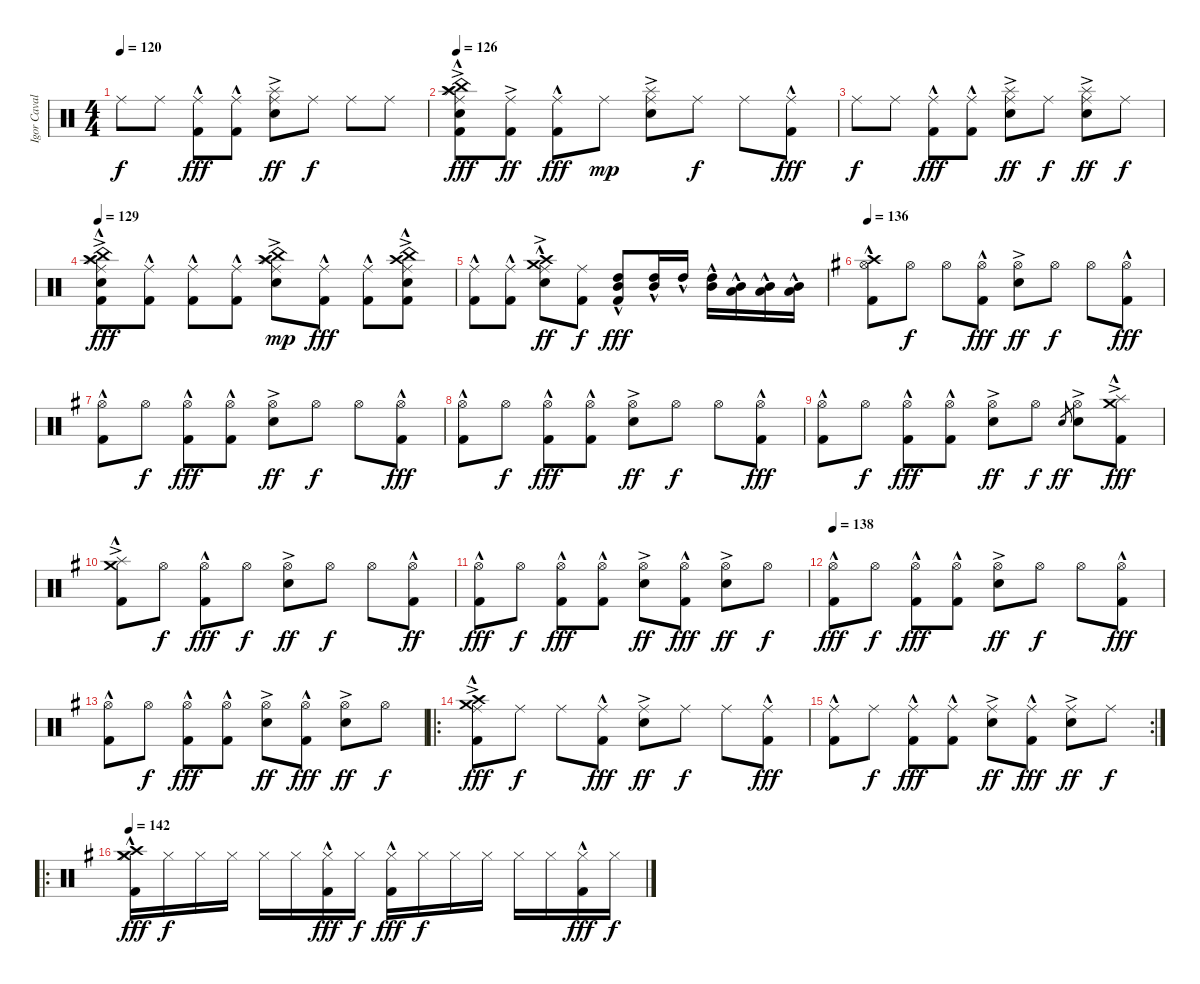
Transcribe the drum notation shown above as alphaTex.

\track ("Igor Cavalera" "Igor Caval") {instrument percussion}
\staff {score}
\articulation defaults
\ts (4 4)
\tempo 120
\clef neutral
\ks c "Ride (middle)".8{dy f} "Ride (middle)".8
("Ride (middle)" "Kick (hit) 2"{hac}).8{dy fff} ("Ride (middle)" "Kick (hit) 2"{hac}).8 ("Splash (hit)" "Snare (hit) 2"{ac} "Ride (middle)").8{dy ff} "Ride (middle)".8{dy f} "Ride (middle)".8 "Ride (middle)".8 |
\tempo 126
("Crash high (hit)"{ac} "China (hit)"{ac} "Snare (hit) 2"{ac} "Splash (hit)" "Ride (middle)" "Kick (hit) 2"{hac}).8{dy fff} ("Ride (middle)" "Kick (hit) 2"{ac}).8{dy ff} ("Ride (middle)" "Kick (hit) 2"{hac}).8{dy fff} "Ride (middle)".8{dy mp} ("Splash (hit)" "Snare (hit) 2"{ac} "Ride (middle)").8 "Ride (middle)".8{dy f} "Ride (middle)".8 ("Ride (middle)" "Kick (hit) 2"{hac}).8{dy fff} |
"Ride (middle)".8{dy f} "Ride (middle)".8 ("Ride (middle)" "Kick (hit) 2"{hac}).8{dy fff} ("Ride (middle)" "Kick (hit) 2"{hac}).8 ("Splash (hit)" "Snare (hit) 2"{ac} "Ride (middle)").8{dy ff} "Ride (middle)".8{dy f} ("Splash (hit)" "Snare (hit) 2"{ac} "Ride (middle)").8{dy ff} "Ride (middle)".8{dy f} |
\tempo 129
("Crash high (hit)"{ac} "China (hit)"{ac} "Snare (hit) 2"{ac} "Ride (middle)" "Splash (hit)" "Kick (hit) 2"{hac}).8{dy fff} ("Ride (middle)" "Kick (hit) 2"{hac}).8 ("Ride (middle)" "Kick (hit) 2"{hac}).8 ("Ride (middle)" "Kick (hit) 2"{hac}).8 ("Crash high (hit)"{ac} "China (hit)"{ac} "Snare (hit) 2"{ac} "Ride (middle)" "Splash (hit)").8{dy mp} ("Ride (middle)" "Kick (hit) 2"{hac}).8{dy fff} ("Ride (middle)" "Kick (hit) 2"{hac}).8 ("Crash high (hit)"{ac} "China (hit)"{ac} "Snare (hit) 2"{ac} "Ride (middle)" "Kick (hit) 2"{hac}).8 |
("Ride (middle)" "Kick (hit) 2"{hac}).8 ("Ride (middle)" "Kick (hit) 2"{hac}).8 ("Crash medium (hit)"{hac} "Crash high (hit)"{ac} "Snare (hit) 2" "Ride (middle)").8{dy ff} ("Ride (middle)" "Kick (hit) 2").8{dy f} ("High Tom (hit)"{hac} "Mid Tom (hit)"{hac} "Kick (hit) 2").8{dy fff} ("High Tom (hit)"{hac} "Mid Tom (hit)"{hac}).16 "High Tom (hit)"{hac}.16 ("High Tom (hit)"{hac} "Mid Tom (hit)"{hac}).16 ("Mid Tom (hit)"{hac} "Low Tom (hit)"{hac}).16 ("Mid Tom (hit)"{hac} "Low Tom (hit)"{hac}).16 ("Mid Tom (hit)"{hac} "Low Tom (hit)"{hac}).16 |
\tempo 136
\ks g
("Crash high (hit)"{hac} "Hi-Hat (open)" "Kick (hit) 2"{hac}).8 "Hi-Hat (open)".8{dy f} "Hi-Hat (open)".8 ("Hi-Hat (open)" "Kick (hit) 2"{hac}).8{dy fff} ("Snare (hit) 2"{ac} "Hi-Hat (open)").8{dy ff} "Hi-Hat (open)".8{dy f} "Hi-Hat (open)".8 ("Hi-Hat (open)" "Kick (hit) 2"{hac}).8{dy fff} |
("Hi-Hat (open)" "Kick (hit) 2"{hac}).8 "Hi-Hat (open)".8{dy f} ("Hi-Hat (open)" "Kick (hit) 2"{hac}).8{dy fff} ("Hi-Hat (open)" "Kick (hit) 2"{hac}).8 ("Snare (hit) 2"{ac} "Hi-Hat (open)").8{dy ff} "Hi-Hat (open)".8{dy f} "Hi-Hat (open)".8 ("Hi-Hat (open)" "Kick (hit) 2"{hac}).8{dy fff} |
("Hi-Hat (open)" "Kick (hit) 2"{hac}).8 "Hi-Hat (open)".8{dy f} ("Hi-Hat (open)" "Kick (hit) 2"{hac}).8{dy fff} ("Hi-Hat (open)" "Kick (hit) 2"{hac}).8 ("Snare (hit) 2"{ac} "Hi-Hat (open)").8{dy ff} "Hi-Hat (open)".8{dy f} "Hi-Hat (open)".8 ("Hi-Hat (open)" "Kick (hit) 2"{hac}).8{dy fff} |
("Hi-Hat (open)" "Kick (hit) 2"{hac}).8 "Hi-Hat (open)".8{dy f} ("Hi-Hat (open)" "Kick (hit) 2"{hac}).8{dy fff} ("Hi-Hat (open)" "Kick (hit) 2"{hac}).8 ("Snare (hit) 2"{ac} "Hi-Hat (open)").8{dy ff} "Hi-Hat (open)".8{dy f} "Snare (hit) 2".8{gr dy ff} ("Snare (hit) 2"{ac} "Hi-Hat (open)").8 ("Crash medium (hit)"{ac} "Splash (hit)"{ac} "Kick (hit) 2"{hac}).8{dy fff} |
("Crash medium (hit)"{ac} "Splash (hit)"{ac} "Kick (hit) 2"{hac}).8 "Hi-Hat (open)".8{dy f} ("Hi-Hat (open)" "Kick (hit) 2"{hac}).8{dy fff} "Hi-Hat (open)".8{dy f} ("Snare (hit) 2"{ac} "Hi-Hat (open)").8{dy ff} "Hi-Hat (open)".8{dy f} "Hi-Hat (open)".8 ("Hi-Hat (open)" "Kick (hit) 2"{hac}).8{dy ff} |
("Hi-Hat (open)" "Kick (hit) 2"{hac}).8{dy fff} "Hi-Hat (open)".8{dy f} ("Hi-Hat (open)" "Kick (hit) 2"{hac}).8{dy fff} ("Hi-Hat (open)" "Kick (hit) 2"{hac}).8 ("Snare (hit) 2"{ac} "Hi-Hat (open)").8{dy ff} ("Hi-Hat (open)" "Kick (hit) 2"{hac}).8{dy fff} ("Snare (hit) 2"{ac} "Hi-Hat (open)").8{dy ff} "Hi-Hat (open)".8{dy f} |
\tempo 138
("Hi-Hat (open)" "Kick (hit) 2"{hac}).8{dy fff} "Hi-Hat (open)".8{dy f} ("Hi-Hat (open)" "Kick (hit) 2"{hac}).8{dy fff} ("Hi-Hat (open)" "Kick (hit) 2"{hac}).8 ("Snare (hit) 2"{ac} "Hi-Hat (open)").8{dy ff} "Hi-Hat (open)".8{dy f} "Hi-Hat (open)".8 ("Hi-Hat (open)" "Kick (hit) 2"{hac}).8{dy fff} |
("Hi-Hat (open)" "Kick (hit) 2"{hac}).8 "Hi-Hat (open)".8{dy f} ("Hi-Hat (open)" "Kick (hit) 2"{hac}).8{dy fff} ("Hi-Hat (open)" "Kick (hit) 2"{hac}).8 ("Snare (hit) 2"{ac} "Hi-Hat (open)").8{dy ff} ("Hi-Hat (open)" "Kick (hit) 2"{hac}).8{dy fff} ("Snare (hit) 2"{ac} "Hi-Hat (open)").8{dy ff} "Hi-Hat (open)".8{dy f} |
\ro
("Crash medium (hit)"{ac} "Crash high (hit)"{ac} "Ride (middle)" "Kick (hit) 2"{hac}).8{dy fff} "Ride (middle)".8{dy f} "Ride (middle)".8 ("Ride (middle)" "Kick (hit) 2"{hac}).8{dy fff} ("Snare (hit) 2"{ac} "Ride (middle)").8{dy ff} "Ride (middle)".8{dy f} "Ride (middle)".8 ("Ride (middle)" "Kick (hit) 2"{hac}).8{dy fff} |
\rc 2
("Ride (middle)" "Kick (hit) 2"{hac}).8 "Ride (middle)".8{dy f} ("Ride (middle)" "Kick (hit) 2"{hac}).8{dy fff} ("Ride (middle)" "Kick (hit) 2"{hac}).8 ("Snare (hit) 2"{ac} "Ride (middle)").8{dy ff} ("Ride (middle)" "Kick (hit) 2"{hac}).8{dy fff} ("Snare (hit) 2"{ac} "Ride (middle)").8{dy ff} "Ride (middle)".8{dy f} |
\ro
\tempo 142
("Crash medium (hit)"{hac} "Crash high (hit)" "Hi-Hat (closed)"{hac} "Kick (hit) 2"{hac}).16{dy fff} "Hi-Hat (closed)".16{dy f} "Hi-Hat (closed)".16 "Hi-Hat (closed)".16 "Hi-Hat (closed)".16 "Hi-Hat (closed)".16 ("Hi-Hat (closed)"{hac} "Kick (hit) 2"{hac}).16{dy fff} "Hi-Hat (closed)".16{dy f} ("Hi-Hat (closed)" "Kick (hit) 2"{hac}).16{dy fff} "Hi-Hat (closed)".16{dy f} "Hi-Hat (closed)".16 "Hi-Hat (closed)".16 "Hi-Hat (closed)".16 "Hi-Hat (closed)".16 ("Hi-Hat (closed)" "Kick (hit) 2"{hac}).16{dy fff} "Hi-Hat (closed)".16{dy f}
